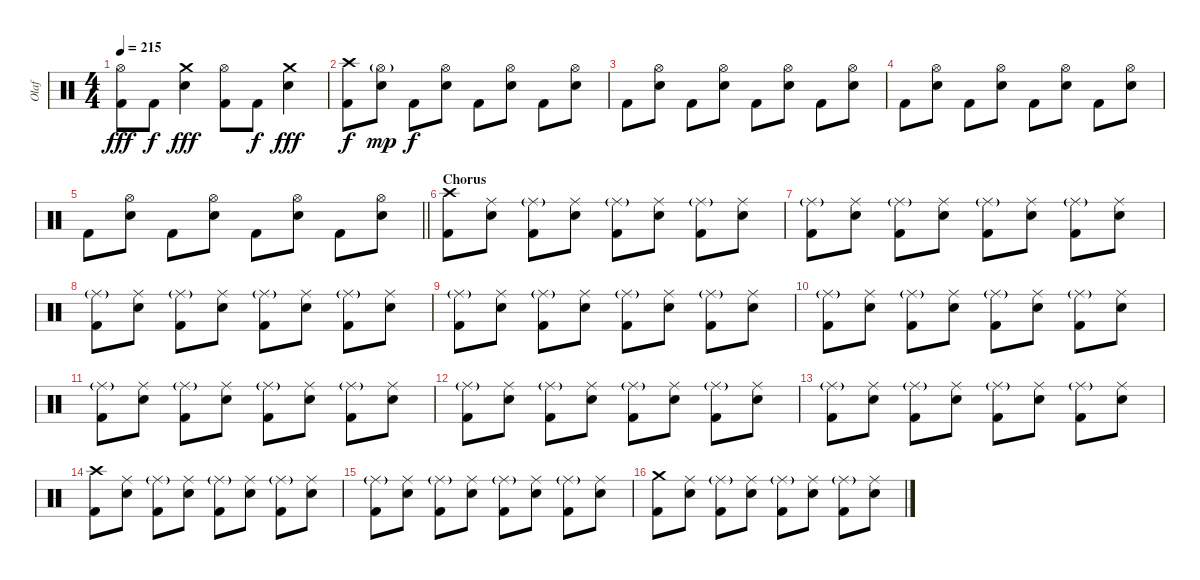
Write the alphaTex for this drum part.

\track ("Olaf" "Olaf") {instrument percussion}
\staff {score}
\articulation defaults
\ts (4 4)
\tempo 215
\clef neutral
\ks c
("Hi-Hat (open)" "Kick (hit) 2").8{dy fff} "Kick (hit) 2".8{dy f} ("Crash medium (hit)" "Electric Snare (hit)").4{dy fff} ("Hi-Hat (open)" "Kick (hit) 2").8 "Kick (hit) 2".8{dy f} ("Crash medium (hit)" "Electric Snare (hit)").4{dy fff} |
("Crash high (hit)" "Kick (hit) 2").8{dy f} ("Hi-Hat (open)"{g} "Electric Snare (hit)").8{dy mp} "Kick (hit) 2".8{dy f} ("Hi-Hat (open)" "Electric Snare (hit)").8 "Kick (hit) 2".8 ("Hi-Hat (open)" "Electric Snare (hit)").8 "Kick (hit) 2".8 ("Hi-Hat (open)" "Electric Snare (hit)").8 |
"Kick (hit) 2".8 ("Hi-Hat (open)" "Electric Snare (hit)").8 "Kick (hit) 2".8 ("Hi-Hat (open)" "Electric Snare (hit)").8 "Kick (hit) 2".8 ("Hi-Hat (open)" "Electric Snare (hit)").8 "Kick (hit) 2".8 ("Hi-Hat (open)" "Electric Snare (hit)").8 |
"Kick (hit) 2".8 ("Hi-Hat (open)" "Electric Snare (hit)").8 "Kick (hit) 2".8 ("Hi-Hat (open)" "Electric Snare (hit)").8 "Kick (hit) 2".8 ("Hi-Hat (open)" "Electric Snare (hit)").8 "Kick (hit) 2".8 ("Hi-Hat (open)" "Electric Snare (hit)").8 |
\barLineRight lightlight "Kick (hit) 2".8
("Hi-Hat (open)" "Electric Snare (hit)").8 "Kick (hit) 2".8 ("Hi-Hat (open)" "Electric Snare (hit)").8 "Kick (hit) 2".8 ("Hi-Hat (open)" "Electric Snare (hit)").8 "Kick (hit) 2".8 ("Hi-Hat (open)" "Electric Snare (hit)").8 |
\section ("" "Chorus")
("Crash high (hit)" "Kick (hit) 2").8 ("Ride (middle)" "Electric Snare (hit)").8 ("Ride (middle)"{g} "Kick (hit) 2").8 ("Ride (middle)" "Electric Snare (hit)").8 ("Ride (middle)"{g} "Kick (hit) 2").8 ("Ride (middle)" "Electric Snare (hit)").8 ("Ride (middle)"{g} "Kick (hit) 2").8 ("Ride (middle)" "Electric Snare (hit)").8 |
("Ride (middle)"{g} "Kick (hit) 2").8 ("Ride (middle)" "Electric Snare (hit)").8 ("Ride (middle)"{g} "Kick (hit) 2").8 ("Ride (middle)" "Electric Snare (hit)").8 ("Ride (middle)"{g} "Kick (hit) 2").8 ("Ride (middle)" "Electric Snare (hit)").8 ("Ride (middle)"{g} "Kick (hit) 2").8 ("Ride (middle)" "Electric Snare (hit)").8 |
("Ride (middle)"{g} "Kick (hit) 2").8 ("Ride (middle)" "Electric Snare (hit)").8 ("Ride (middle)"{g} "Kick (hit) 2").8 ("Ride (middle)" "Electric Snare (hit)").8 ("Ride (middle)"{g} "Kick (hit) 2").8 ("Ride (middle)" "Electric Snare (hit)").8 ("Ride (middle)"{g} "Kick (hit) 2").8 ("Ride (middle)" "Electric Snare (hit)").8 |
("Ride (middle)"{g} "Kick (hit) 2").8 ("Ride (middle)" "Electric Snare (hit)").8 ("Ride (middle)"{g} "Kick (hit) 2").8 ("Ride (middle)" "Electric Snare (hit)").8 ("Ride (middle)"{g} "Kick (hit) 2").8 ("Ride (middle)" "Electric Snare (hit)").8 ("Ride (middle)"{g} "Kick (hit) 2").8 ("Ride (middle)" "Electric Snare (hit)").8 |
("Ride (middle)"{g} "Kick (hit) 2").8 ("Ride (middle)" "Electric Snare (hit)").8 ("Ride (middle)"{g} "Kick (hit) 2").8 ("Ride (middle)" "Electric Snare (hit)").8 ("Ride (middle)"{g} "Kick (hit) 2").8 ("Ride (middle)" "Electric Snare (hit)").8 ("Ride (middle)"{g} "Kick (hit) 2").8 ("Ride (middle)" "Electric Snare (hit)").8 |
("Ride (middle)"{g} "Kick (hit) 2").8 ("Ride (middle)" "Electric Snare (hit)").8 ("Ride (middle)"{g} "Kick (hit) 2").8 ("Ride (middle)" "Electric Snare (hit)").8 ("Ride (middle)"{g} "Kick (hit) 2").8 ("Ride (middle)" "Electric Snare (hit)").8 ("Ride (middle)"{g} "Kick (hit) 2").8 ("Ride (middle)" "Electric Snare (hit)").8 |
("Ride (middle)"{g} "Kick (hit) 2").8 ("Ride (middle)" "Electric Snare (hit)").8 ("Ride (middle)"{g} "Kick (hit) 2").8 ("Ride (middle)" "Electric Snare (hit)").8 ("Ride (middle)"{g} "Kick (hit) 2").8 ("Ride (middle)" "Electric Snare (hit)").8 ("Ride (middle)"{g} "Kick (hit) 2").8 ("Ride (middle)" "Electric Snare (hit)").8 |
("Ride (middle)"{g} "Kick (hit) 2").8 ("Ride (middle)" "Electric Snare (hit)").8 ("Ride (middle)"{g} "Kick (hit) 2").8 ("Ride (middle)" "Electric Snare (hit)").8 ("Ride (middle)"{g} "Kick (hit) 2").8 ("Ride (middle)" "Electric Snare (hit)").8 ("Ride (middle)"{g} "Kick (hit) 2").8 ("Ride (middle)" "Electric Snare (hit)").8 |
("Crash high (hit)" "Kick (hit) 2").8 ("Ride (middle)" "Electric Snare (hit)").8 ("Ride (middle)"{g} "Kick (hit) 2").8 ("Ride (middle)" "Electric Snare (hit)").8 ("Ride (middle)"{g} "Kick (hit) 2").8 ("Ride (middle)" "Electric Snare (hit)").8 ("Ride (middle)"{g} "Kick (hit) 2").8 ("Ride (middle)" "Electric Snare (hit)").8 |
("Ride (middle)"{g} "Kick (hit) 2").8 ("Ride (middle)" "Electric Snare (hit)").8 ("Ride (middle)"{g} "Kick (hit) 2").8 ("Ride (middle)" "Electric Snare (hit)").8 ("Ride (middle)"{g} "Kick (hit) 2").8 ("Ride (middle)" "Electric Snare (hit)").8 ("Ride (middle)"{g} "Kick (hit) 2").8 ("Ride (middle)" "Electric Snare (hit)").8 |
("Crash medium (hit)" "Kick (hit) 2").8 ("Ride (middle)" "Electric Snare (hit)").8 ("Ride (middle)"{g} "Kick (hit) 2").8 ("Ride (middle)" "Electric Snare (hit)").8 ("Ride (middle)"{g} "Kick (hit) 2").8 ("Ride (middle)" "Electric Snare (hit)").8 ("Ride (middle)"{g} "Kick (hit) 2").8 ("Ride (middle)" "Electric Snare (hit)").8
